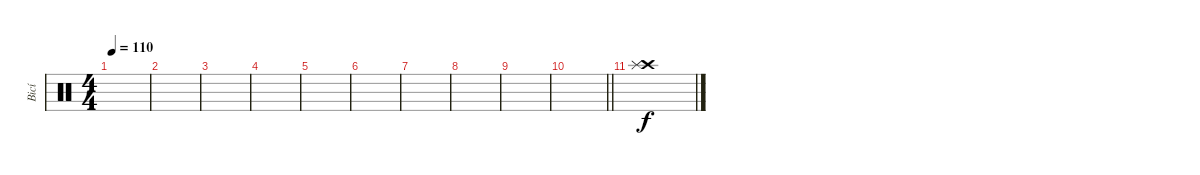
\track ("Bicí" "Bicí") {instrument percussion}
\staff {score}
\articulation defaults
\ts (4 4)
\tempo 110
\clef neutral
\ks c
|
|
|
|
|
|
|
|
|
\barLineRight lightlight
|
\section ("" "")
("Crash high (hit)" "Splash (hit)").1{volume 9}
